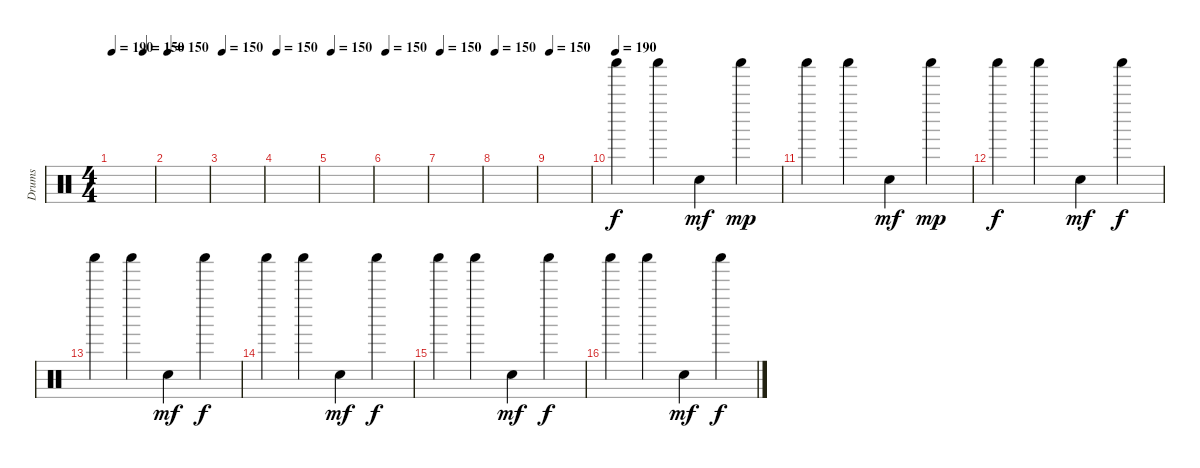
\track ("Drums" "Drums") {instrument percussion}
\staff {score}
\articulation defaults
\ts (4 4)
\tempo 190
\tempo (150 0.75)
\tempo 190
\clef neutral
\ks c
|
\tempo 150
|
\tempo 150
|
\tempo 150
|
\tempo 150
|
\tempo 150
|
\tempo 150
|
\tempo 150
|
\tempo 150
|
\tempo (190)
"Shaker (hit)".4 "Shaker (hit)".4 "Electric Snare (hit)".4{dy mf} "Shaker (hit)".4{dy mp} |
"Shaker (hit)".4 "Shaker (hit)".4 "Electric Snare (hit)".4{dy mf} "Shaker (hit)".4{dy mp} |
"Shaker (hit)".4{dy f} "Shaker (hit)".4 "Electric Snare (hit)".4{dy mf} "Shaker (hit)".4{dy f} |
"Shaker (hit)".4 "Shaker (hit)".4 "Electric Snare (hit)".4{dy mf} "Shaker (hit)".4{dy f} |
"Shaker (hit)".4 "Shaker (hit)".4 "Electric Snare (hit)".4{dy mf} "Shaker (hit)".4{dy f} |
"Shaker (hit)".4 "Shaker (hit)".4 "Electric Snare (hit)".4{dy mf} "Shaker (hit)".4{dy f} |
"Shaker (hit)".4 "Shaker (hit)".4 "Electric Snare (hit)".4{dy mf} "Shaker (hit)".4{dy f}
